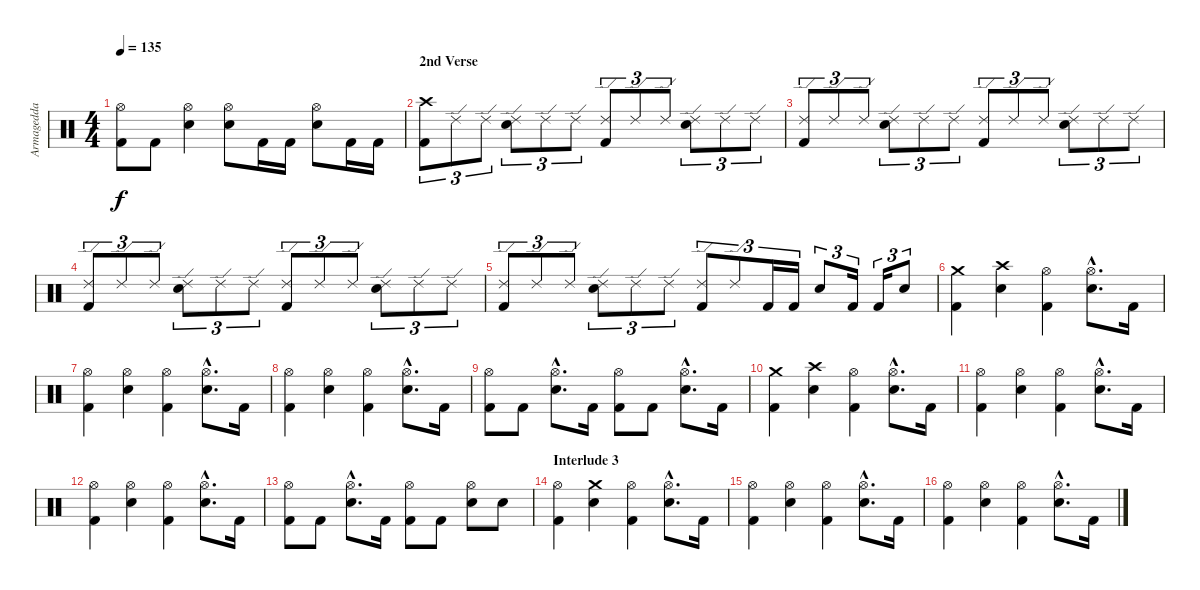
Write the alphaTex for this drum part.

\track ("Armagedda" "Armagedda") {instrument percussion}
\staff {score}
\articulation defaults
\ts (4 4)
\tempo 135
\clef neutral
\ks c
("Hi-Hat (open)" "Kick (hit) 2").8{dy f} "Kick (hit) 2".8 ("Hi-Hat (open)" "Electric Snare (hit)").4 ("Hi-Hat (open)" "Electric Snare (hit)").8 "Kick (hit) 2".16 "Kick (hit) 2".16 ("Hi-Hat (open)" "Electric Snare (hit)").8 "Kick (hit) 2".16 "Kick (hit) 2".16 |
\section ("" "2nd Verse")
("Crash high (hit)" "Kick (hit) 2").8{tu (3 2)} "Ride (edge) 2".8{tu (3 2)} "Ride (edge) 2".8{tu (3 2)} ("Ride (edge) 2" "Electric Snare (hit)").8{tu (3 2)} "Ride (edge) 2".8{tu (3 2)} "Ride (edge) 2".8{tu (3 2)} ("Ride (edge) 2" "Kick (hit) 2").8{tu (3 2)} "Ride (edge) 2".8{tu (3 2)} "Ride (edge) 2".8{tu (3 2)} ("Ride (edge) 2" "Electric Snare (hit)").8{tu (3 2)} "Ride (edge) 2".8{tu (3 2)} "Ride (edge) 2".8{tu (3 2)} |
("Ride (edge) 2" "Kick (hit) 2").8{tu (3 2)} "Ride (edge) 2".8{tu (3 2)} "Ride (edge) 2".8{tu (3 2)} ("Ride (edge) 2" "Electric Snare (hit)").8{tu (3 2)} "Ride (edge) 2".8{tu (3 2)} "Ride (edge) 2".8{tu (3 2)} ("Ride (edge) 2" "Kick (hit) 2").8{tu (3 2)} "Ride (edge) 2".8{tu (3 2)} "Ride (edge) 2".8{tu (3 2)} ("Ride (edge) 2" "Electric Snare (hit)").8{tu (3 2)} "Ride (edge) 2".8{tu (3 2)} "Ride (edge) 2".8{tu (3 2)} |
("Ride (edge) 2" "Kick (hit) 2").8{tu (3 2)} "Ride (edge) 2".8{tu (3 2)} "Ride (edge) 2".8{tu (3 2)} ("Ride (edge) 2" "Electric Snare (hit)").8{tu (3 2)} "Ride (edge) 2".8{tu (3 2)} "Ride (edge) 2".8{tu (3 2)} ("Ride (edge) 2" "Kick (hit) 2").8{tu (3 2)} "Ride (edge) 2".8{tu (3 2)} "Ride (edge) 2".8{tu (3 2)} ("Ride (edge) 2" "Electric Snare (hit)").8{tu (3 2)} "Ride (edge) 2".8{tu (3 2)} "Ride (edge) 2".8{tu (3 2)} |
("Ride (edge) 2" "Kick (hit) 2").8{tu (3 2)} "Ride (edge) 2".8{tu (3 2)} "Ride (edge) 2".8{tu (3 2)} ("Ride (edge) 2" "Electric Snare (hit)").8{tu (3 2)} "Ride (edge) 2".8{tu (3 2)} "Ride (edge) 2".8{tu (3 2)} ("Ride (edge) 2" "Kick (hit) 2").8{tu (3 2)} "Ride (edge) 2".8{tu (3 2)} "Kick (hit) 2".16{tu (3 2)} "Kick (hit) 2".16{tu (3 2)} "Electric Snare (hit)".8{tu (3 2)} "Kick (hit) 2".16{tu (3 2)} "Kick (hit) 2".16{tu (3 2)} "Electric Snare (hit)".8{tu (3 2)} |
("Crash medium (hit)" "Kick (hit) 2").4 ("Crash high (hit)" "Electric Snare (hit)").4 ("Hi-Hat (open)" "Kick (hit) 2").4 ("Hi-Hat (open)"{hac} "Electric Snare (hit)"{hac}).8{d} "Kick (hit) 2".16 |
("Hi-Hat (open)" "Kick (hit) 2").4 ("Hi-Hat (open)" "Electric Snare (hit)").4 ("Hi-Hat (open)" "Kick (hit) 2").4 ("Hi-Hat (open)"{hac} "Electric Snare (hit)"{hac}).8{d} "Kick (hit) 2".16 |
("Hi-Hat (open)" "Kick (hit) 2").4 ("Hi-Hat (open)" "Electric Snare (hit)").4 ("Hi-Hat (open)" "Kick (hit) 2").4 ("Hi-Hat (open)"{hac} "Electric Snare (hit)"{hac}).8{d} "Kick (hit) 2".16 |
("Hi-Hat (open)" "Kick (hit) 2").8 "Kick (hit) 2".8 ("Hi-Hat (open)"{hac} "Electric Snare (hit)"{hac}).8{d} "Kick (hit) 2".16 ("Hi-Hat (open)" "Kick (hit) 2").8 "Kick (hit) 2".8 ("Hi-Hat (open)"{hac} "Electric Snare (hit)"{hac}).8{d} "Kick (hit) 2".16 |
("Crash medium (hit)" "Kick (hit) 2").4 ("Crash high (hit)" "Electric Snare (hit)").4 ("Hi-Hat (open)" "Kick (hit) 2").4 ("Hi-Hat (open)"{hac} "Electric Snare (hit)"{hac}).8{d} "Kick (hit) 2".16 |
("Hi-Hat (open)" "Kick (hit) 2").4 ("Hi-Hat (open)" "Electric Snare (hit)").4 ("Hi-Hat (open)" "Kick (hit) 2").4 ("Hi-Hat (open)"{hac} "Electric Snare (hit)"{hac}).8{d} "Kick (hit) 2".16 |
("Hi-Hat (open)" "Kick (hit) 2").4 ("Hi-Hat (open)" "Electric Snare (hit)").4 ("Hi-Hat (open)" "Kick (hit) 2").4 ("Hi-Hat (open)"{hac} "Electric Snare (hit)"{hac}).8{d} "Kick (hit) 2".16 |
("Hi-Hat (open)" "Kick (hit) 2").8 "Kick (hit) 2".8 ("Hi-Hat (open)"{hac} "Electric Snare (hit)"{hac}).8{d} "Kick (hit) 2".16 ("Hi-Hat (open)" "Kick (hit) 2").8 "Kick (hit) 2".8 ("Hi-Hat (open)" "Electric Snare (hit)").8 "Electric Snare (hit)".8 |
\section ("" "Interlude 3")
("Hi-Hat (open)" "Kick (hit) 2").4 ("Crash medium (hit)" "Electric Snare (hit)").4 ("Hi-Hat (open)" "Kick (hit) 2").4 ("Hi-Hat (open)"{hac} "Electric Snare (hit)"{hac}).8{d} "Kick (hit) 2".16 |
("Hi-Hat (open)" "Kick (hit) 2").4 ("Hi-Hat (open)" "Electric Snare (hit)").4 ("Hi-Hat (open)" "Kick (hit) 2").4 ("Hi-Hat (open)"{hac} "Electric Snare (hit)"{hac}).8{d} "Kick (hit) 2".16 |
("Hi-Hat (open)" "Kick (hit) 2").4 ("Hi-Hat (open)" "Electric Snare (hit)").4 ("Hi-Hat (open)" "Kick (hit) 2").4 ("Hi-Hat (open)"{hac} "Electric Snare (hit)"{hac}).8{d} "Kick (hit) 2".16
